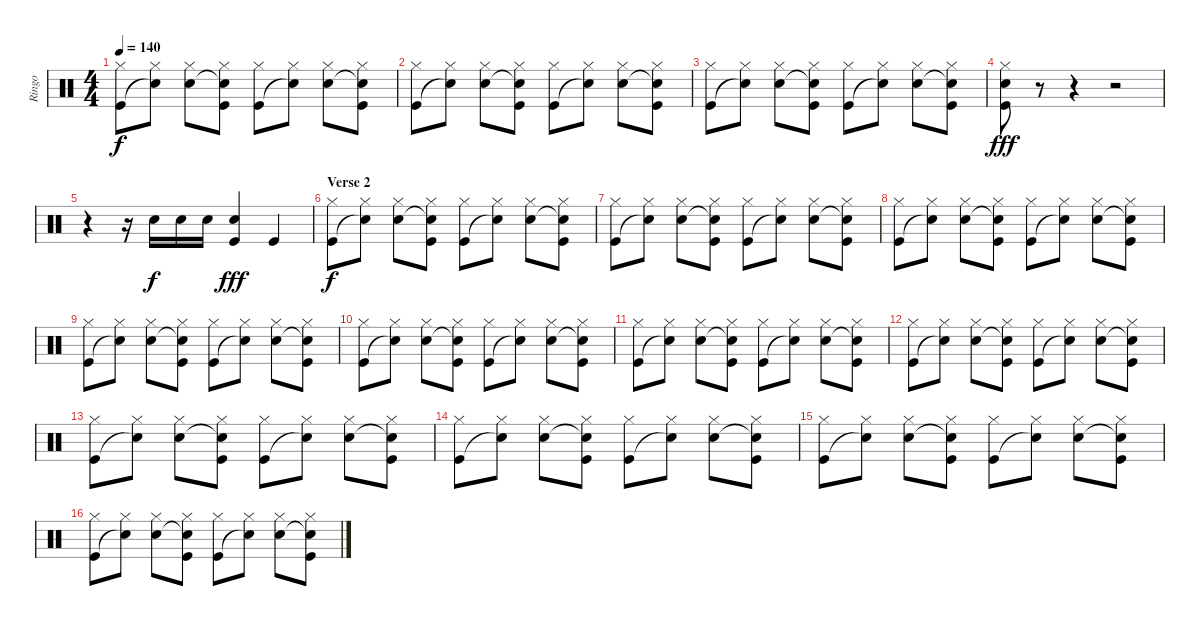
\track ("Ringo" "Ringo") {instrument percussion}
\staff {score}
\articulation defaults
\ts (4 4)
\tempo 140
\clef neutral
\ks c
("Hi-Hat (closed)" "Kick (hit)").8{dy f} ("Hi-Hat (closed)" "Snare (hit)"{t}).8 ("Hi-Hat (closed)" "Snare (hit) 2").8 ("Hi-Hat (closed)" "Snare (hit)"{t} "Kick (hit)").8 ("Hi-Hat (closed)" "Kick (hit)").8 ("Hi-Hat (closed)" "Snare (hit)"{t}).8 ("Hi-Hat (closed)" "Snare (hit) 2").8 ("Hi-Hat (closed)" "Snare (hit)"{t} "Kick (hit)").8 |
("Hi-Hat (closed)" "Kick (hit)").8 ("Hi-Hat (closed)" "Snare (hit)"{t}).8 ("Hi-Hat (closed)" "Snare (hit) 2").8 ("Hi-Hat (closed)" "Snare (hit)"{t} "Kick (hit)").8 ("Hi-Hat (closed)" "Kick (hit)").8 ("Hi-Hat (closed)" "Snare (hit)"{t}).8 ("Hi-Hat (closed)" "Snare (hit) 2").8 ("Hi-Hat (closed)" "Snare (hit)"{t} "Kick (hit)").8 |
("Hi-Hat (closed)" "Kick (hit)").8 ("Hi-Hat (closed)" "Snare (hit)"{t}).8 ("Hi-Hat (closed)" "Snare (hit) 2").8 ("Hi-Hat (closed)" "Snare (hit)"{t} "Kick (hit)").8 ("Hi-Hat (closed)" "Kick (hit)").8 ("Hi-Hat (closed)" "Snare (hit)"{t}).8 ("Hi-Hat (closed)" "Snare (hit) 2").8 ("Hi-Hat (closed)" "Snare (hit)"{t} "Kick (hit)").8 |
("Hi-Hat (closed)" "Snare (hit) 2" "Kick (hit)").8{dy fff} r.8 r.4 r.2 |
r.4 r.16 "Snare (hit) 2".16{dy f} "Snare (hit) 2".16 "Snare (hit) 2".16 ("Snare (hit) 2" "Kick (hit)").4{dy fff} "Kick (hit)".4 |
\section ("" "Verse 2")
("Hi-Hat (closed)" "Kick (hit)").8{dy f} ("Hi-Hat (closed)" "Snare (hit)"{t}).8 ("Hi-Hat (closed)" "Snare (hit) 2").8 ("Hi-Hat (closed)" "Snare (hit)"{t} "Kick (hit)").8 ("Hi-Hat (closed)" "Kick (hit)").8 ("Hi-Hat (closed)" "Snare (hit)"{t}).8 ("Hi-Hat (closed)" "Snare (hit) 2").8 ("Hi-Hat (closed)" "Snare (hit)"{t} "Kick (hit)").8 |
("Hi-Hat (closed)" "Kick (hit)").8 ("Hi-Hat (closed)" "Snare (hit)"{t}).8 ("Hi-Hat (closed)" "Snare (hit) 2").8 ("Hi-Hat (closed)" "Snare (hit)"{t} "Kick (hit)").8 ("Hi-Hat (closed)" "Kick (hit)").8 ("Hi-Hat (closed)" "Snare (hit)"{t}).8 ("Hi-Hat (closed)" "Snare (hit) 2").8 ("Hi-Hat (closed)" "Snare (hit)"{t} "Kick (hit)").8 |
("Hi-Hat (closed)" "Kick (hit)").8 ("Hi-Hat (closed)" "Snare (hit)"{t}).8 ("Hi-Hat (closed)" "Snare (hit) 2").8 ("Hi-Hat (closed)" "Snare (hit)"{t} "Kick (hit)").8 ("Hi-Hat (closed)" "Kick (hit)").8 ("Hi-Hat (closed)" "Snare (hit)"{t}).8 ("Hi-Hat (closed)" "Snare (hit) 2").8 ("Hi-Hat (closed)" "Snare (hit)"{t} "Kick (hit)").8 |
("Hi-Hat (closed)" "Kick (hit)").8 ("Hi-Hat (closed)" "Snare (hit)"{t}).8 ("Hi-Hat (closed)" "Snare (hit) 2").8 ("Hi-Hat (closed)" "Snare (hit)"{t} "Kick (hit)").8 ("Hi-Hat (closed)" "Kick (hit)").8 ("Hi-Hat (closed)" "Snare (hit)"{t}).8 ("Hi-Hat (closed)" "Snare (hit) 2").8 ("Hi-Hat (closed)" "Snare (hit)"{t} "Kick (hit)").8 |
("Hi-Hat (closed)" "Kick (hit)").8 ("Hi-Hat (closed)" "Snare (hit)"{t}).8 ("Hi-Hat (closed)" "Snare (hit) 2").8 ("Hi-Hat (closed)" "Snare (hit)"{t} "Kick (hit)").8 ("Hi-Hat (closed)" "Kick (hit)").8 ("Hi-Hat (closed)" "Snare (hit)"{t}).8 ("Hi-Hat (closed)" "Snare (hit) 2").8 ("Hi-Hat (closed)" "Snare (hit)"{t} "Kick (hit)").8 |
("Hi-Hat (closed)" "Kick (hit)").8 ("Hi-Hat (closed)" "Snare (hit)"{t}).8 ("Hi-Hat (closed)" "Snare (hit) 2").8 ("Hi-Hat (closed)" "Snare (hit)"{t} "Kick (hit)").8 ("Hi-Hat (closed)" "Kick (hit)").8 ("Hi-Hat (closed)" "Snare (hit)"{t}).8 ("Hi-Hat (closed)" "Snare (hit) 2").8 ("Hi-Hat (closed)" "Snare (hit)"{t} "Kick (hit)").8 |
("Hi-Hat (closed)" "Kick (hit)").8 ("Hi-Hat (closed)" "Snare (hit)"{t}).8 ("Hi-Hat (closed)" "Snare (hit) 2").8 ("Hi-Hat (closed)" "Snare (hit)"{t} "Kick (hit)").8 ("Hi-Hat (closed)" "Kick (hit)").8 ("Hi-Hat (closed)" "Snare (hit)"{t}).8 ("Hi-Hat (closed)" "Snare (hit) 2").8 ("Hi-Hat (closed)" "Snare (hit)"{t} "Kick (hit)").8 |
("Hi-Hat (closed)" "Kick (hit)").8 ("Hi-Hat (closed)" "Snare (hit)"{t}).8 ("Hi-Hat (closed)" "Snare (hit) 2").8 ("Hi-Hat (closed)" "Snare (hit)"{t} "Kick (hit)").8 ("Hi-Hat (closed)" "Kick (hit)").8 ("Hi-Hat (closed)" "Snare (hit)"{t}).8 ("Hi-Hat (closed)" "Snare (hit) 2").8 ("Hi-Hat (closed)" "Snare (hit)"{t} "Kick (hit)").8 |
("Hi-Hat (closed)" "Kick (hit)").8 ("Hi-Hat (closed)" "Snare (hit)"{t}).8 ("Hi-Hat (closed)" "Snare (hit) 2").8 ("Hi-Hat (closed)" "Snare (hit)"{t} "Kick (hit)").8 ("Hi-Hat (closed)" "Kick (hit)").8 ("Hi-Hat (closed)" "Snare (hit)"{t}).8 ("Hi-Hat (closed)" "Snare (hit) 2").8 ("Hi-Hat (closed)" "Snare (hit)"{t} "Kick (hit)").8 |
("Hi-Hat (closed)" "Kick (hit)").8 ("Hi-Hat (closed)" "Snare (hit)"{t}).8 ("Hi-Hat (closed)" "Snare (hit) 2").8 ("Hi-Hat (closed)" "Snare (hit)"{t} "Kick (hit)").8 ("Hi-Hat (closed)" "Kick (hit)").8 ("Hi-Hat (closed)" "Snare (hit)"{t}).8 ("Hi-Hat (closed)" "Snare (hit) 2").8 ("Hi-Hat (closed)" "Snare (hit)"{t} "Kick (hit)").8 |
("Hi-Hat (closed)" "Kick (hit)").8 ("Hi-Hat (closed)" "Snare (hit)"{t}).8 ("Hi-Hat (closed)" "Snare (hit) 2").8 ("Hi-Hat (closed)" "Snare (hit)"{t} "Kick (hit)").8 ("Hi-Hat (closed)" "Kick (hit)").8 ("Hi-Hat (closed)" "Snare (hit)"{t}).8 ("Hi-Hat (closed)" "Snare (hit) 2").8 ("Hi-Hat (closed)" "Snare (hit)"{t} "Kick (hit)").8
